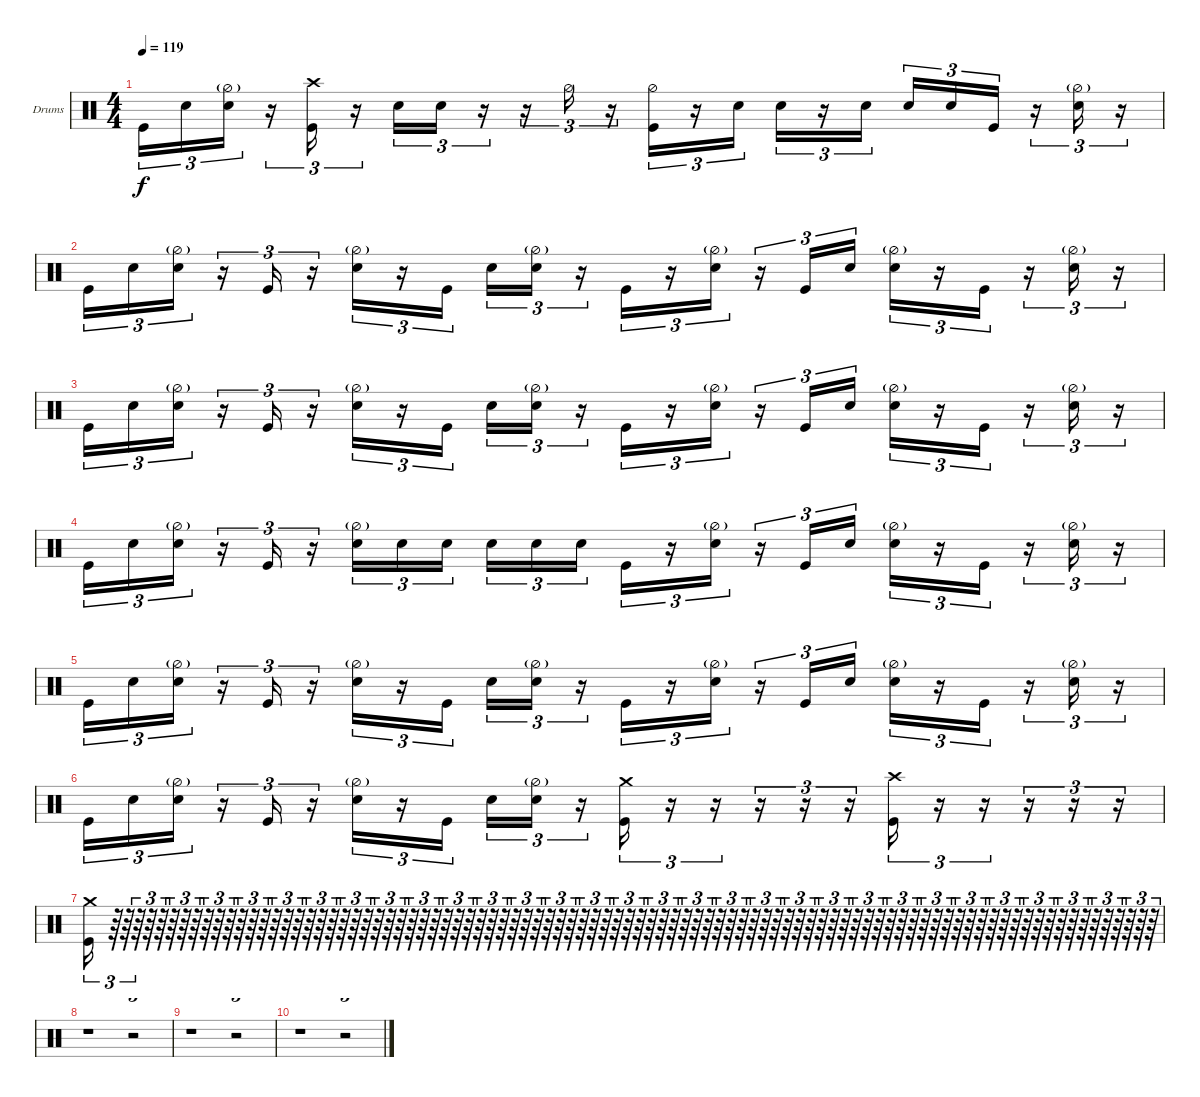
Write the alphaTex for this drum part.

\defaultSystemsLayout 4
\bracketExtendMode groupsimilarinstruments
\firstSystemTrackNameOrientation horizontal
\otherSystemsTrackNameOrientation horizontal
\track ("Drumkit" "Drums") {instrument percussion}
\staff {score}
\articulation defaults
\ts (4 4)
\tempo 119
\clef neutral
\ks c "Kick (hit)".16{tu (3 2) dy f} "Snare (hit) 2".16{tu (3 2)}
("Snare (hit) 2" "Hi-Hat (half)"{g}).16{tu (3 2)} r.16{tu (3 2)} ("Kick (hit)" "Crash high (hit)").16{tu (3 2)} r.16{tu (3 2)} "Snare (hit) 2".16{tu (3 2)} "Snare (hit) 2".16{tu (3 2)} r.16{tu (3 2)} r.16{tu (3 2)} "Hi-Hat (half)".16{tu (3 2)} r.16{tu (3 2)} ("Kick (hit)" "Hi-Hat (half)").16{tu (3 2)} r.16{tu (3 2)} "Snare (hit) 2".16{tu (3 2)} "Snare (hit) 2".16{tu (3 2)} r.16{tu (3 2)} "Snare (hit) 2".16{tu (3 2)} "Snare (hit) 2".16{tu (3 2)} "Snare (hit) 2".16{tu (3 2)} "Kick (hit)".16{tu (3 2)} r.16{tu (3 2)} ("Snare (hit) 2" "Hi-Hat (half)"{g}).16{tu (3 2)} r.16{tu (3 2)} |
"Kick (hit)".16{tu (3 2)} "Snare (hit) 2".16{tu (3 2)} ("Snare (hit) 2" "Hi-Hat (half)"{g}).16{tu (3 2)} r.16{tu (3 2)} "Kick (hit)".16{tu (3 2)} r.16{tu (3 2)} ("Snare (hit) 2" "Hi-Hat (half)"{g}).16{tu (3 2)} r.16{tu (3 2)} "Kick (hit)".16{tu (3 2)} "Snare (hit) 2".16{tu (3 2)} ("Snare (hit) 2" "Hi-Hat (half)"{g}).16{tu (3 2)} r.16{tu (3 2)} "Kick (hit)".16{tu (3 2)} r.16{tu (3 2)} ("Snare (hit) 2" "Hi-Hat (half)"{g}).16{tu (3 2)} r.16{tu (3 2)} "Kick (hit)".16{tu (3 2)} "Snare (hit) 2".16{tu (3 2)} ("Snare (hit) 2" "Hi-Hat (half)"{g}).16{tu (3 2)} r.16{tu (3 2)} "Kick (hit)".16{tu (3 2)} r.16{tu (3 2)} ("Snare (hit) 2" "Hi-Hat (half)"{g}).16{tu (3 2)} r.16{tu (3 2)} |
"Kick (hit)".16{tu (3 2)} "Snare (hit) 2".16{tu (3 2)} ("Snare (hit) 2" "Hi-Hat (half)"{g}).16{tu (3 2)} r.16{tu (3 2)} "Kick (hit)".16{tu (3 2)} r.16{tu (3 2)} ("Snare (hit) 2" "Hi-Hat (half)"{g}).16{tu (3 2)} r.16{tu (3 2)} "Kick (hit)".16{tu (3 2)} "Snare (hit) 2".16{tu (3 2)} ("Snare (hit) 2" "Hi-Hat (half)"{g}).16{tu (3 2)} r.16{tu (3 2)} "Kick (hit)".16{tu (3 2)} r.16{tu (3 2)} ("Snare (hit) 2" "Hi-Hat (half)"{g}).16{tu (3 2)} r.16{tu (3 2)} "Kick (hit)".16{tu (3 2)} "Snare (hit) 2".16{tu (3 2)} ("Snare (hit) 2" "Hi-Hat (half)"{g}).16{tu (3 2)} r.16{tu (3 2)} "Kick (hit)".16{tu (3 2)} r.16{tu (3 2)} ("Snare (hit) 2" "Hi-Hat (half)"{g}).16{tu (3 2)} r.16{tu (3 2)} |
"Kick (hit)".16{tu (3 2)} "Snare (hit) 2".16{tu (3 2)} ("Snare (hit) 2" "Hi-Hat (half)"{g}).16{tu (3 2)} r.16{tu (3 2)} "Kick (hit)".16{tu (3 2)} r.16{tu (3 2)} ("Snare (hit) 2" "Hi-Hat (half)"{g}).16{tu (3 2)} "Snare (hit) 2".16{tu (3 2)} "Snare (hit) 2".16{tu (3 2)} "Snare (hit) 2".16{tu (3 2)} "Snare (hit) 2".16{tu (3 2)} "Snare (hit) 2".16{tu (3 2)} "Kick (hit)".16{tu (3 2)} r.16{tu (3 2)} ("Snare (hit) 2" "Hi-Hat (half)"{g}).16{tu (3 2)} r.16{tu (3 2)} "Kick (hit)".16{tu (3 2)} "Snare (hit) 2".16{tu (3 2)} ("Snare (hit) 2" "Hi-Hat (half)"{g}).16{tu (3 2)} r.16{tu (3 2)} "Kick (hit)".16{tu (3 2)} r.16{tu (3 2)} ("Snare (hit) 2" "Hi-Hat (half)"{g}).16{tu (3 2)} r.16{tu (3 2)} |
"Kick (hit)".16{tu (3 2)} "Snare (hit) 2".16{tu (3 2)} ("Snare (hit) 2" "Hi-Hat (half)"{g}).16{tu (3 2)} r.16{tu (3 2)} "Kick (hit)".16{tu (3 2)} r.16{tu (3 2)} ("Snare (hit) 2" "Hi-Hat (half)"{g}).16{tu (3 2)} r.16{tu (3 2)} "Kick (hit)".16{tu (3 2)} "Snare (hit) 2".16{tu (3 2)} ("Snare (hit) 2" "Hi-Hat (half)"{g}).16{tu (3 2)} r.16{tu (3 2)} "Kick (hit)".16{tu (3 2)} r.16{tu (3 2)} ("Snare (hit) 2" "Hi-Hat (half)"{g}).16{tu (3 2)} r.16{tu (3 2)} "Kick (hit)".16{tu (3 2)} "Snare (hit) 2".16{tu (3 2)} ("Snare (hit) 2" "Hi-Hat (half)"{g}).16{tu (3 2)} r.16{tu (3 2)} "Kick (hit)".16{tu (3 2)} r.16{tu (3 2)} ("Snare (hit) 2" "Hi-Hat (half)"{g}).16{tu (3 2)} r.16{tu (3 2)} |
"Kick (hit)".16{tu (3 2)} "Snare (hit) 2".16{tu (3 2)} ("Snare (hit) 2" "Hi-Hat (half)"{g}).16{tu (3 2)} r.16{tu (3 2)} "Kick (hit)".16{tu (3 2)} r.16{tu (3 2)} ("Snare (hit) 2" "Hi-Hat (half)"{g}).16{tu (3 2)} r.16{tu (3 2)} "Kick (hit)".16{tu (3 2)} "Snare (hit) 2".16{tu (3 2)} ("Snare (hit) 2" "Hi-Hat (half)"{g}).16{tu (3 2)} r.16{tu (3 2)} ("Kick (hit)" "Crash medium (hit)").16{tu (3 2)} r.16{tu (3 2)} r.16{tu (3 2)} r.16{tu (3 2)} r.16{tu (3 2)} r.16{tu (3 2)} ("Kick (hit)" "Crash high (hit)").16{tu (3 2)} r.16{tu (3 2)} r.16{tu (3 2)} r.16{tu (3 2)} r.16{tu (3 2)} r.16{tu (3 2)} |
("Kick (hit)" "Crash medium (hit)").16{tu (3 2)} r.64{tu (3 2)} r.64{tu (3 2)} r.64{tu (3 2)} r.64{tu (3 2)} r.64{tu (3 2)} r.64{tu (3 2)} r.64{tu (3 2)} r.64{tu (3 2)} r.64{tu (3 2)} r.64{tu (3 2)} r.64{tu (3 2)} r.64{tu (3 2)} r.64{tu (3 2)} r.64{tu (3 2)} r.64{tu (3 2)} r.64{tu (3 2)} r.64{tu (3 2)} r.64{tu (3 2)} r.64{tu (3 2)} r.64{tu (3 2)} r.64{tu (3 2)} r.64{tu (3 2)} r.64{tu (3 2)} r.64{tu (3 2)} r.64{tu (3 2)} r.64{tu (3 2)} r.64{tu (3 2)} r.64{tu (3 2)} r.64{tu (3 2)} r.64{tu (3 2)} r.64{tu (3 2)} r.64{tu (3 2)} r.64{tu (3 2)} r.64{tu (3 2)} r.64{tu (3 2)} r.64{tu (3 2)} r.64{tu (3 2)} r.64{tu (3 2)} r.64{tu (3 2)} r.64{tu (3 2)} r.64{tu (3 2)} r.64{tu (3 2)} r.64{tu (3 2)} r.64{tu (3 2)} r.64{tu (3 2)} r.64{tu (3 2)} r.64{tu (3 2)} r.64{tu (3 2)} r.64{tu (3 2)} r.64{tu (3 2)} r.64{tu (3 2)} r.64{tu (3 2)} r.64{tu (3 2)} r.64{tu (3 2)} r.64{tu (3 2)} r.64{tu (3 2)} r.64{tu (3 2)} r.64{tu (3 2)} r.64{tu (3 2)} r.64{tu (3 2)} r.64{tu (3 2)} r.64{tu (3 2)} r.64{tu (3 2)} r.64{tu (3 2)} r.64{tu (3 2)} r.64{tu (3 2)} r.64{tu (3 2)} r.64{tu (3 2)} r.64{tu (3 2)} r.64{tu (3 2)} r.64{tu (3 2)} r.64{tu (3 2)} r.64{tu (3 2)} r.64{tu (3 2)} r.64{tu (3 2)} r.64{tu (3 2)} r.64{tu (3 2)} r.64{tu (3 2)} r.64{tu (3 2)} r.64{tu (3 2)} r.64{tu (3 2)} r.64{tu (3 2)} r.64{tu (3 2)} r.64{tu (3 2)} r.64{tu (3 2)} r.64{tu (3 2)} r.64{tu (3 2)} r.64{tu (3 2)} r.64{tu (3 2)} r.64{tu (3 2)} r.64{tu (3 2)} r.64{tu (3 2)} |
r.1{tu (3 2)} r.2{tu (3 2)} |
r.1{tu (3 2)} r.2{tu (3 2)} |
r.1{tu (3 2)} r.2{tu (3 2)}
